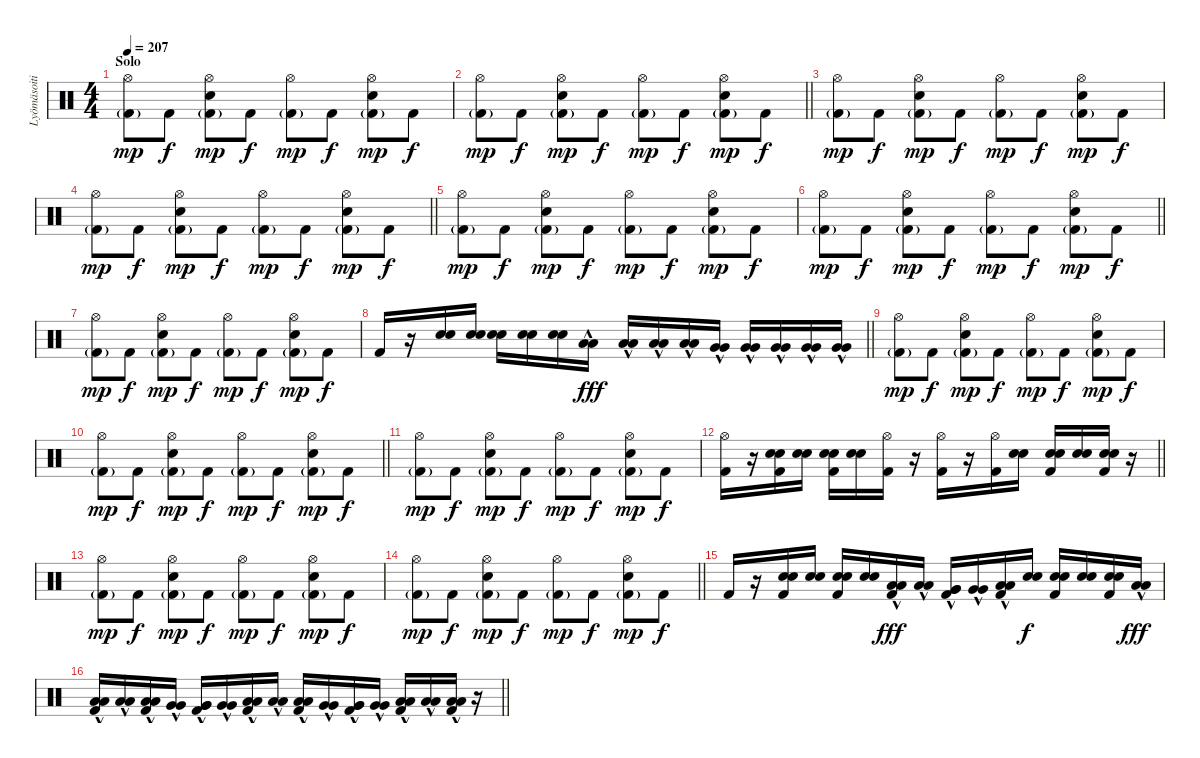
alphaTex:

\track ("Lyömäsoitin" "Lyömäsoiti") {instrument percussion}
\staff {score}
\articulation defaults
\ts (4 4)
\section ("" "Solo")
\tempo 207
\clef neutral
\ks c
("Hi-Hat (open)" "Kick (hit) 2"{g}).8{dy mp} "Kick (hit) 2".8{dy f} ("Hi-Hat (open)" "Snare (hit) 2" "Kick (hit) 2"{g}).8{dy mp} "Kick (hit) 2".8{dy f} ("Hi-Hat (open)" "Kick (hit) 2"{g}).8{dy mp} "Kick (hit) 2".8{dy f} ("Hi-Hat (open)" "Snare (hit) 2" "Kick (hit) 2"{g}).8{dy mp} "Kick (hit) 2".8{dy f} |
\barLineRight lightlight
("Hi-Hat (open)" "Kick (hit) 2"{g}).8{dy mp} "Kick (hit) 2".8{dy f} ("Hi-Hat (open)" "Snare (hit) 2" "Kick (hit) 2"{g}).8{dy mp} "Kick (hit) 2".8{dy f} ("Hi-Hat (open)" "Kick (hit) 2"{g}).8{dy mp} "Kick (hit) 2".8{dy f} ("Hi-Hat (open)" "Snare (hit) 2" "Kick (hit) 2"{g}).8{dy mp} "Kick (hit) 2".8{dy f} |
("Hi-Hat (open)" "Kick (hit) 2"{g}).8{dy mp} "Kick (hit) 2".8{dy f} ("Hi-Hat (open)" "Snare (hit) 2" "Kick (hit) 2"{g}).8{dy mp} "Kick (hit) 2".8{dy f} ("Hi-Hat (open)" "Kick (hit) 2"{g}).8{dy mp} "Kick (hit) 2".8{dy f} ("Hi-Hat (open)" "Snare (hit) 2" "Kick (hit) 2"{g}).8{dy mp} "Kick (hit) 2".8{dy f} |
\barLineRight lightlight
("Hi-Hat (open)" "Kick (hit) 2"{g}).8{dy mp} "Kick (hit) 2".8{dy f} ("Hi-Hat (open)" "Snare (hit) 2" "Kick (hit) 2"{g}).8{dy mp} "Kick (hit) 2".8{dy f} ("Hi-Hat (open)" "Kick (hit) 2"{g}).8{dy mp} "Kick (hit) 2".8{dy f} ("Hi-Hat (open)" "Snare (hit) 2" "Kick (hit) 2"{g}).8{dy mp} "Kick (hit) 2".8{dy f} |
("Hi-Hat (open)" "Kick (hit) 2"{g}).8{dy mp} "Kick (hit) 2".8{dy f} ("Hi-Hat (open)" "Snare (hit) 2" "Kick (hit) 2"{g}).8{dy mp} "Kick (hit) 2".8{dy f} ("Hi-Hat (open)" "Kick (hit) 2"{g}).8{dy mp} "Kick (hit) 2".8{dy f} ("Hi-Hat (open)" "Snare (hit) 2" "Kick (hit) 2"{g}).8{dy mp} "Kick (hit) 2".8{dy f} |
\barLineRight lightlight
("Hi-Hat (open)" "Kick (hit) 2"{g}).8{dy mp} "Kick (hit) 2".8{dy f} ("Hi-Hat (open)" "Snare (hit) 2" "Kick (hit) 2"{g}).8{dy mp} "Kick (hit) 2".8{dy f} ("Hi-Hat (open)" "Kick (hit) 2"{g}).8{dy mp} "Kick (hit) 2".8{dy f} ("Hi-Hat (open)" "Snare (hit) 2" "Kick (hit) 2"{g}).8{dy mp} "Kick (hit) 2".8{dy f} |
("Hi-Hat (open)" "Kick (hit) 2"{g}).8{dy mp} "Kick (hit) 2".8{dy f} ("Hi-Hat (open)" "Snare (hit) 2" "Kick (hit) 2"{g}).8{dy mp} "Kick (hit) 2".8{dy f} ("Hi-Hat (open)" "Kick (hit) 2"{g}).8{dy mp} "Kick (hit) 2".8{dy f} ("Hi-Hat (open)" "Snare (hit) 2" "Kick (hit) 2"{g}).8{dy mp} "Kick (hit) 2".8{dy f} |
\barLineRight lightlight "Kick (hit) 2".16
r.16 ("Snare (hit) 2" "Electric Snare (hit)").16 ("Snare (hit) 2" "Electric Snare (hit)").16 ("Snare (hit) 2" "Electric Snare (hit)").16 ("Snare (hit) 2" "Electric Snare (hit)").16 ("Snare (hit) 2" "Electric Snare (hit)").16 ("Low Floor Tom (hit)"{hac} "Low Floor Tom (hit)"{hac}).16{dy fff} ("Low Floor Tom (hit)"{hac} "Low Floor Tom (hit)"{hac}).16 ("Low Floor Tom (hit)"{hac} "Low Floor Tom (hit)"{hac}).16 ("Low Floor Tom (hit)"{hac} "Low Floor Tom (hit)"{hac}).16 ("Very Low Tom (hit)"{hac} "Very Low Tom (hit)").16 ("Very Low Tom (hit)"{hac} "Very Low Tom (hit)"{hac}).16 ("Very Low Tom (hit)"{hac} "Very Low Tom (hit)"{hac}).16 ("Very Low Tom (hit)"{hac} "Very Low Tom (hit)"{hac}).16 ("Very Low Tom (hit)"{hac} "Very Low Tom (hit)"{hac}).16 |
("Hi-Hat (open)" "Kick (hit) 2"{g}).8{dy mp} "Kick (hit) 2".8{dy f} ("Hi-Hat (open)" "Snare (hit) 2" "Kick (hit) 2"{g}).8{dy mp} "Kick (hit) 2".8{dy f} ("Hi-Hat (open)" "Kick (hit) 2"{g}).8{dy mp} "Kick (hit) 2".8{dy f} ("Hi-Hat (open)" "Snare (hit) 2" "Kick (hit) 2"{g}).8{dy mp} "Kick (hit) 2".8{dy f} |
\barLineRight lightlight
("Hi-Hat (open)" "Kick (hit) 2"{g}).8{dy mp} "Kick (hit) 2".8{dy f} ("Hi-Hat (open)" "Snare (hit) 2" "Kick (hit) 2"{g}).8{dy mp} "Kick (hit) 2".8{dy f} ("Hi-Hat (open)" "Kick (hit) 2"{g}).8{dy mp} "Kick (hit) 2".8{dy f} ("Hi-Hat (open)" "Snare (hit) 2" "Kick (hit) 2"{g}).8{dy mp} "Kick (hit) 2".8{dy f} |
("Hi-Hat (open)" "Kick (hit) 2"{g}).8{dy mp} "Kick (hit) 2".8{dy f} ("Hi-Hat (open)" "Snare (hit) 2" "Kick (hit) 2"{g}).8{dy mp} "Kick (hit) 2".8{dy f} ("Hi-Hat (open)" "Kick (hit) 2"{g}).8{dy mp} "Kick (hit) 2".8{dy f} ("Hi-Hat (open)" "Snare (hit) 2" "Kick (hit) 2"{g}).8{dy mp} "Kick (hit) 2".8{dy f} |
\barLineRight lightlight
("Hi-Hat (open)" "Kick (hit) 2").16 r.16 ("Snare (hit) 2" "Electric Snare (hit)" "Kick (hit) 2").16 ("Snare (hit) 2" "Electric Snare (hit)").16 ("Snare (hit) 2" "Electric Snare (hit)" "Kick (hit) 2").16 ("Snare (hit) 2" "Electric Snare (hit)").16 ("Hi-Hat (open)" "Kick (hit) 2").16 r.16 ("Hi-Hat (open)" "Kick (hit) 2").16 r.16 ("Hi-Hat (open)" "Kick (hit) 2").16 ("Snare (hit) 2" "Electric Snare (hit)").16 ("Snare (hit) 2" "Electric Snare (hit)" "Kick (hit) 2").16 ("Snare (hit) 2" "Electric Snare (hit)").16 ("Snare (hit) 2" "Electric Snare (hit)" "Kick (hit) 2").16 r.16 |
("Hi-Hat (open)" "Kick (hit) 2"{g}).8{dy mp} "Kick (hit) 2".8{dy f} ("Hi-Hat (open)" "Snare (hit) 2" "Kick (hit) 2"{g}).8{dy mp} "Kick (hit) 2".8{dy f} ("Hi-Hat (open)" "Kick (hit) 2"{g}).8{dy mp} "Kick (hit) 2".8{dy f} ("Hi-Hat (open)" "Snare (hit) 2" "Kick (hit) 2"{g}).8{dy mp} "Kick (hit) 2".8{dy f} |
\barLineRight lightlight
("Hi-Hat (open)" "Kick (hit) 2"{g}).8{dy mp} "Kick (hit) 2".8{dy f} ("Hi-Hat (open)" "Snare (hit) 2" "Kick (hit) 2"{g}).8{dy mp} "Kick (hit) 2".8{dy f} ("Hi-Hat (open)" "Kick (hit) 2"{g}).8{dy mp} "Kick (hit) 2".8{dy f} ("Hi-Hat (open)" "Snare (hit) 2" "Kick (hit) 2"{g}).8{dy mp} "Kick (hit) 2".8{dy f} |
"Kick (hit) 2".16 r.16 ("Snare (hit) 2" "Electric Snare (hit)" "Kick (hit) 2").16 ("Snare (hit) 2" "Electric Snare (hit)").16 ("Snare (hit) 2" "Electric Snare (hit)" "Kick (hit) 2").16 ("Snare (hit) 2" "Electric Snare (hit)").16 ("Low Floor Tom (hit)"{hac} "Low Floor Tom (hit)"{hac} "Kick (hit) 2").16{dy fff} ("Low Floor Tom (hit)"{hac} "Low Floor Tom (hit)"{hac}).16 ("Very Low Tom (hit)"{hac} "Very Low Tom (hit)"{hac} "Kick (hit) 2").16 ("Very Low Tom (hit)"{hac} "Very Low Tom (hit)"{hac}).16 ("Low Tom (hit)"{hac} "Low Tom (hit)"{hac} "Kick (hit) 2").16 ("Snare (hit) 2" "Electric Snare (hit)").16{dy f} ("Snare (hit) 2" "Electric Snare (hit)" "Kick (hit) 2").16 ("Snare (hit) 2" "Electric Snare (hit)").16 ("Snare (hit) 2" "Electric Snare (hit)" "Kick (hit) 2").16 ("Low Floor Tom (hit)"{hac} "Low Floor Tom (hit)"{hac}).16{dy fff} |
\barLineRight lightlight
("Low Floor Tom (hit)"{hac} "Low Floor Tom (hit)"{hac} "Kick (hit) 2").16 ("Low Floor Tom (hit)"{hac} "Low Floor Tom (hit)"{hac}).16 ("Low Floor Tom (hit)"{hac} "Low Floor Tom (hit)"{hac} "Kick (hit) 2").16 ("Very Low Tom (hit)"{hac} "Very Low Tom (hit)"{hac}).16 ("Very Low Tom (hit)"{hac} "Very Low Tom (hit)"{hac} "Kick (hit) 2").16 ("Very Low Tom (hit)"{hac} "Very Low Tom (hit)"{hac}).16 ("Low Floor Tom (hit)"{hac} "Low Floor Tom (hit)"{hac} "Kick (hit) 2").16 ("Low Floor Tom (hit)"{hac} "Low Floor Tom (hit)"{hac}).16 ("Low Floor Tom (hit)"{hac} "Low Floor Tom (hit)"{hac} "Kick (hit) 2").16 ("Very Low Tom (hit)"{hac} "Very Low Tom (hit)"{hac}).16 ("Very Low Tom (hit)"{hac} "Very Low Tom (hit)"{hac} "Kick (hit) 2").16 ("Very Low Tom (hit)"{hac} "Very Low Tom (hit)"{hac}).16 ("Low Tom (hit)"{hac} "Low Tom (hit)"{hac} "Kick (hit) 2").16 ("Low Tom (hit)"{hac} "Low Tom (hit)"{hac}).16 ("Low Tom (hit)"{hac} "Low Tom (hit)"{hac} "Kick (hit) 2").16 r.16
